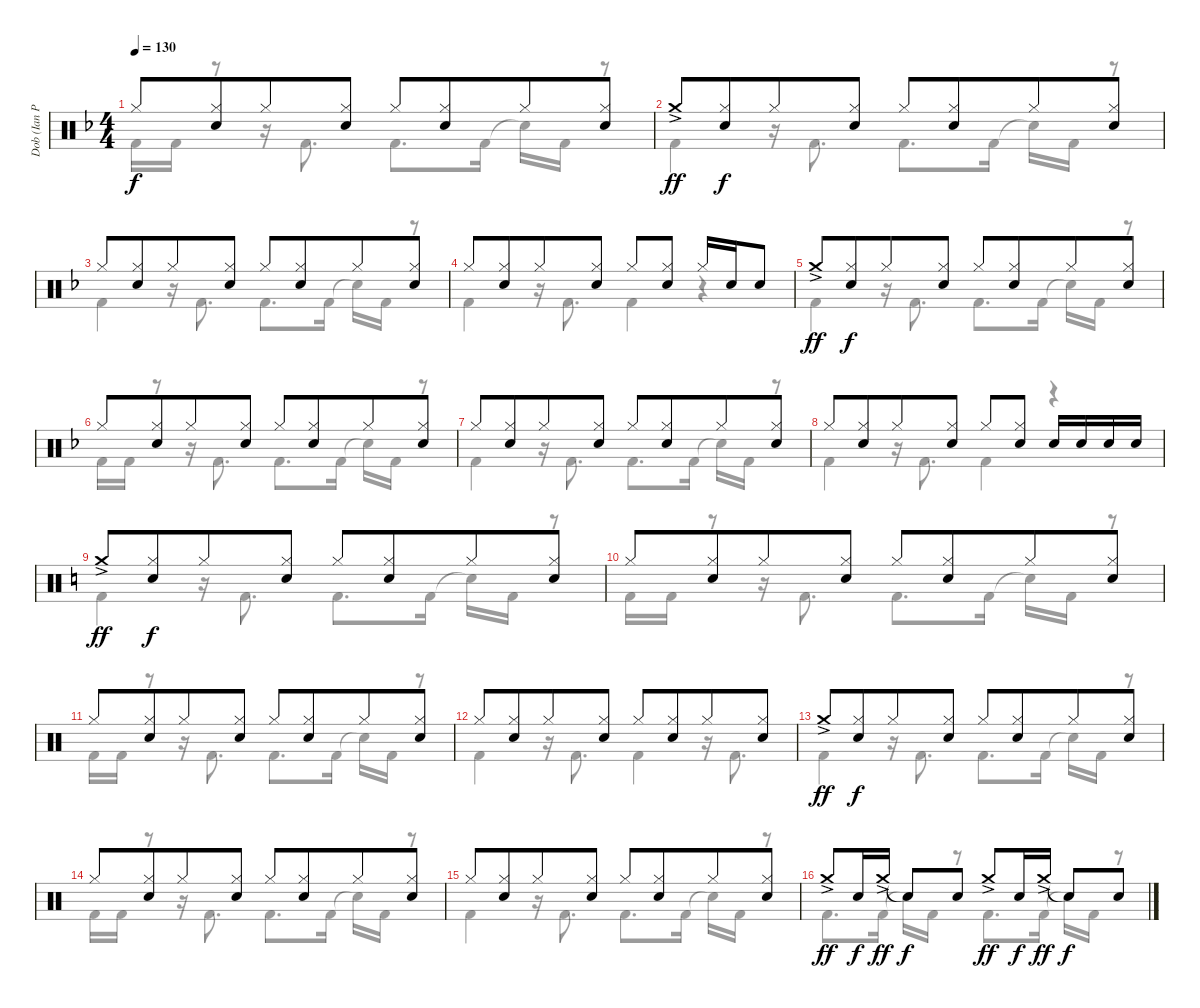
\track ("Dob (Ian Paice)" "Dob (Ian P") {instrument percussion}
\staff {score}
\articulation defaults
\voice
\ts (4 4)
\tempo 130
\clef neutral
\ks f "Hi-Hat (closed)".8{dy f}
("Hi-Hat (closed)" "Electric Snare (hit)").8{beam merge} "Hi-Hat (closed)".8 ("Hi-Hat (closed)" "Electric Snare (hit)").8 "Hi-Hat (closed)".8 ("Hi-Hat (closed)" "Electric Snare (hit)").8{beam merge} "Hi-Hat (closed)".8 ("Hi-Hat (closed)" "Electric Snare (hit)").8 |
"Crash medium (hit)"{ac}.8{dy ff} ("Hi-Hat (closed)" "Electric Snare (hit)").8{dy f beam merge} "Hi-Hat (closed)".8 ("Hi-Hat (closed)" "Electric Snare (hit)").8 "Hi-Hat (closed)".8 ("Hi-Hat (closed)" "Electric Snare (hit)").8{beam merge} "Hi-Hat (closed)".8 ("Hi-Hat (closed)" "Electric Snare (hit)").8 |
"Hi-Hat (closed)".8 ("Hi-Hat (closed)" "Electric Snare (hit)").8{beam merge} "Hi-Hat (closed)".8 ("Hi-Hat (closed)" "Electric Snare (hit)").8 "Hi-Hat (closed)".8 ("Hi-Hat (closed)" "Electric Snare (hit)").8{beam merge} "Hi-Hat (closed)".8 ("Hi-Hat (closed)" "Electric Snare (hit)").8 |
"Hi-Hat (closed)".8 ("Hi-Hat (closed)" "Electric Snare (hit)").8{beam merge} "Hi-Hat (closed)".8 ("Hi-Hat (closed)" "Electric Snare (hit)").8 "Hi-Hat (closed)".8 ("Hi-Hat (closed)" "Electric Snare (hit)").8 "Hi-Hat (closed)".16 "Electric Snare (hit)".16 "Electric Snare (hit)".8 |
"Crash medium (hit)"{ac}.8{dy ff} ("Hi-Hat (closed)" "Electric Snare (hit)").8{dy f beam merge} "Hi-Hat (closed)".8 ("Hi-Hat (closed)" "Electric Snare (hit)").8 "Hi-Hat (closed)".8 ("Hi-Hat (closed)" "Electric Snare (hit)").8{beam merge} "Hi-Hat (closed)".8 ("Hi-Hat (closed)" "Electric Snare (hit)").8 |
"Hi-Hat (closed)".8 ("Hi-Hat (closed)" "Electric Snare (hit)").8{beam merge} "Hi-Hat (closed)".8 ("Hi-Hat (closed)" "Electric Snare (hit)").8 "Hi-Hat (closed)".8 ("Hi-Hat (closed)" "Electric Snare (hit)").8{beam merge} "Hi-Hat (closed)".8 ("Hi-Hat (closed)" "Electric Snare (hit)").8 |
"Hi-Hat (closed)".8 ("Hi-Hat (closed)" "Electric Snare (hit)").8{beam merge} "Hi-Hat (closed)".8 ("Hi-Hat (closed)" "Electric Snare (hit)").8 "Hi-Hat (closed)".8 ("Hi-Hat (closed)" "Electric Snare (hit)").8{beam merge} "Hi-Hat (closed)".8 ("Hi-Hat (closed)" "Electric Snare (hit)").8 |
"Hi-Hat (closed)".8 ("Hi-Hat (closed)" "Electric Snare (hit)").8{beam merge} "Hi-Hat (closed)".8 ("Hi-Hat (closed)" "Electric Snare (hit)").8 "Hi-Hat (closed)".8 ("Hi-Hat (closed)" "Electric Snare (hit)").8 "Electric Snare (hit)".16 "Electric Snare (hit)".16 "Electric Snare (hit)".16 "Electric Snare (hit)".16 |
\ks c "Crash medium (hit)"{ac}.8{dy ff}
("Hi-Hat (closed)" "Electric Snare (hit)").8{dy f beam merge} "Hi-Hat (closed)".8 ("Hi-Hat (closed)" "Electric Snare (hit)").8 "Hi-Hat (closed)".8 ("Hi-Hat (closed)" "Electric Snare (hit)").8{beam merge} "Hi-Hat (closed)".8 ("Hi-Hat (closed)" "Electric Snare (hit)").8 |
"Hi-Hat (closed)".8 ("Hi-Hat (closed)" "Electric Snare (hit)").8{beam merge} "Hi-Hat (closed)".8 ("Hi-Hat (closed)" "Electric Snare (hit)").8 "Hi-Hat (closed)".8 ("Hi-Hat (closed)" "Electric Snare (hit)").8{beam merge} "Hi-Hat (closed)".8 ("Hi-Hat (closed)" "Electric Snare (hit)").8 |
"Hi-Hat (closed)".8 ("Hi-Hat (closed)" "Electric Snare (hit)").8{beam merge} "Hi-Hat (closed)".8 ("Hi-Hat (closed)" "Electric Snare (hit)").8 "Hi-Hat (closed)".8 ("Hi-Hat (closed)" "Electric Snare (hit)").8{beam merge} "Hi-Hat (closed)".8 ("Hi-Hat (closed)" "Electric Snare (hit)").8 |
"Hi-Hat (closed)".8 ("Hi-Hat (closed)" "Electric Snare (hit)").8{beam merge} "Hi-Hat (closed)".8 ("Hi-Hat (closed)" "Electric Snare (hit)").8 "Hi-Hat (closed)".8 ("Hi-Hat (closed)" "Electric Snare (hit)").8{beam merge} "Hi-Hat (closed)".8 ("Hi-Hat (closed)" "Electric Snare (hit)").8 |
"Crash medium (hit)"{ac}.8{dy ff} ("Hi-Hat (closed)" "Electric Snare (hit)").8{dy f beam merge} "Hi-Hat (closed)".8 ("Hi-Hat (closed)" "Electric Snare (hit)").8 "Hi-Hat (closed)".8 ("Hi-Hat (closed)" "Electric Snare (hit)").8{beam merge} "Hi-Hat (closed)".8 ("Hi-Hat (closed)" "Electric Snare (hit)").8 |
"Hi-Hat (closed)".8 ("Hi-Hat (closed)" "Electric Snare (hit)").8{beam merge} "Hi-Hat (closed)".8 ("Hi-Hat (closed)" "Electric Snare (hit)").8 "Hi-Hat (closed)".8 ("Hi-Hat (closed)" "Electric Snare (hit)").8{beam merge} "Hi-Hat (closed)".8 ("Hi-Hat (closed)" "Electric Snare (hit)").8 |
"Hi-Hat (closed)".8 ("Hi-Hat (closed)" "Electric Snare (hit)").8{beam merge} "Hi-Hat (closed)".8 ("Hi-Hat (closed)" "Electric Snare (hit)").8 "Hi-Hat (closed)".8 ("Hi-Hat (closed)" "Electric Snare (hit)").8{beam merge} "Hi-Hat (closed)".8 ("Hi-Hat (closed)" "Electric Snare (hit)").8 |
"Crash medium (hit)"{ac}.8{dy ff} "Electric Snare (hit)".16{dy f} "Crash medium (hit)"{ac}.16{dy ff} "Snare (hit)"{t}.8{dy f} "Electric Snare (hit)".8 "Crash medium (hit)"{ac}.8{dy ff} "Electric Snare (hit)".16{dy f} "Crash medium (hit)"{ac}.16{dy ff} "Snare (hit)"{t}.8{dy f} "Electric Snare (hit)".8
\voice
\clef neutral
\ottava regular
\simile none
\ks f "Kick (hit) 2".16{dy f} "Kick (hit) 2".16
r.8 r.16 "Kick (hit) 2".8{d} "Kick (hit) 2".8{d} "Kick (hit) 2".16 "Snare (hit)"{t}.16 "Kick (hit) 2".16 r.8 |
"Kick (hit) 2".4 r.16 "Kick (hit) 2".8{d} "Kick (hit) 2".8{d} "Kick (hit) 2".16 "Snare (hit)"{t}.16 "Kick (hit) 2".16 r.8 |
"Kick (hit) 2".4 r.16 "Kick (hit) 2".8{d} "Kick (hit) 2".8{d} "Kick (hit) 2".16 "Snare (hit)"{t}.16 "Kick (hit) 2".16 r.8 |
"Kick (hit) 2".4 r.16 "Kick (hit) 2".8{d} "Kick (hit) 2".4 r.4 |
"Kick (hit) 2".4 r.16 "Kick (hit) 2".8{d} "Kick (hit) 2".8{d} "Kick (hit) 2".16 "Snare (hit)"{t}.16 "Kick (hit) 2".16 r.8 |
"Kick (hit) 2".16 "Kick (hit) 2".16 r.8 r.16 "Kick (hit) 2".8{d} "Kick (hit) 2".8{d} "Kick (hit) 2".16 "Snare (hit)"{t}.16 "Kick (hit) 2".16 r.8 |
"Kick (hit) 2".4 r.16 "Kick (hit) 2".8{d} "Kick (hit) 2".8{d} "Kick (hit) 2".16 "Snare (hit)"{t}.16 "Kick (hit) 2".16 r.8 |
"Kick (hit) 2".4 r.16 "Kick (hit) 2".8{d} "Kick (hit) 2".4 r.4 |
\ks c "Kick (hit) 2".4
r.16 "Kick (hit) 2".8{d} "Kick (hit) 2".8{d} "Kick (hit) 2".16 "Snare (hit)"{t}.16 "Kick (hit) 2".16 r.8 |
"Kick (hit) 2".16 "Kick (hit) 2".16 r.8 r.16 "Kick (hit) 2".8{d} "Kick (hit) 2".8{d} "Kick (hit) 2".16 "Snare (hit)"{t}.16 "Kick (hit) 2".16 r.8 |
"Kick (hit) 2".16 "Kick (hit) 2".16 r.8 r.16 "Kick (hit) 2".8{d} "Kick (hit) 2".8{d} "Kick (hit) 2".16 "Snare (hit)"{t}.16 "Kick (hit) 2".16 r.8 |
"Kick (hit) 2".4 r.16 "Kick (hit) 2".8{d} "Kick (hit) 2".4 r.16 "Kick (hit) 2".8{d} |
"Kick (hit) 2".4 r.16 "Kick (hit) 2".8{d} "Kick (hit) 2".8{d} "Kick (hit) 2".16 "Snare (hit)"{t}.16 "Kick (hit) 2".16 r.8 |
"Kick (hit) 2".16 "Kick (hit) 2".16 r.8 r.16 "Kick (hit) 2".8{d} "Kick (hit) 2".8{d} "Kick (hit) 2".16 "Snare (hit)"{t}.16 "Kick (hit) 2".16 r.8 |
"Kick (hit) 2".4 r.16 "Kick (hit) 2".8{d} "Kick (hit) 2".8{d} "Kick (hit) 2".16 "Snare (hit)"{t}.16 "Kick (hit) 2".16 r.8 |
"Kick (hit) 2".8{d} "Kick (hit) 2".16 "Snare (hit)"{t}.16 "Kick (hit) 2".16 r.8 "Kick (hit) 2".8{d} "Kick (hit) 2".16 "Snare (hit)"{t}.16 "Kick (hit) 2".16 r.8
